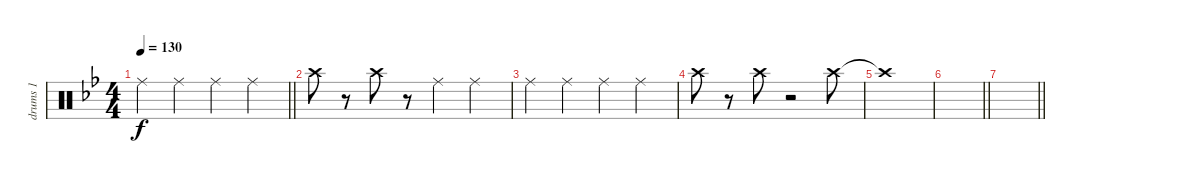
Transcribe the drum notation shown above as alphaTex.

\track ("drums 1" "drums 1") {instrument percussion}
\staff {score}
\articulation defaults
\ts (4 4)
\tempo 130
\clef neutral
\barLineRight lightlight
\ks bb "Ride (middle)".4{dy f} "Ride (middle)".4 "Ride (middle)".4 "Ride (middle)".4
|
"Crash high (hit)".8 r.8 "Crash high (hit)".8 r.8 "Ride (middle)".4 "Ride (middle)".4 |
"Ride (middle)".4 "Ride (middle)".4 "Ride (middle)".4 "Ride (middle)".4 |
"Crash high (hit)".8 r.8 "Crash high (hit)".8 r.2 "Crash high (hit)".8 |
"Crash high (hit)"{t}.1 |
\barLineRight lightlight
|
\barLineRight lightlight
